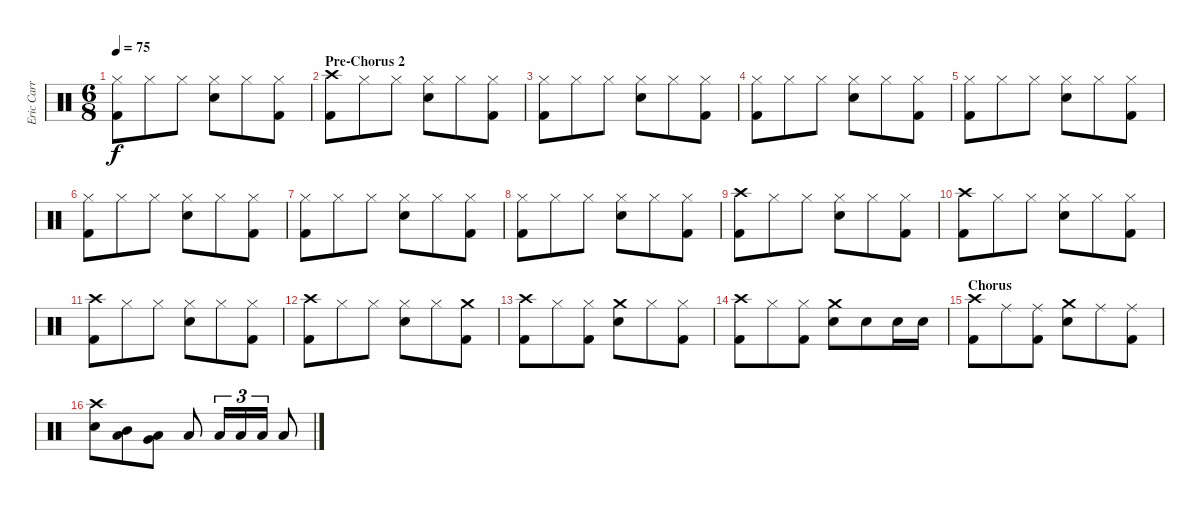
\track ("Eric Carr" "Eric Carr") {instrument percussion}
\staff {score}
\articulation defaults
\ts (6 8)
\tempo 75
\clef neutral
\ks c
("Hi-Hat (closed)" "Kick (hit) 2").8{dy f} "Hi-Hat (closed)".8 "Hi-Hat (closed)".8 ("Hi-Hat (closed)" "Electric Snare (hit)").8 "Hi-Hat (closed)".8 ("Hi-Hat (closed)" "Kick (hit) 2").8 |
\section ("" "Pre-Chorus 2")
("Crash high (hit)" "Kick (hit) 2").8 "Hi-Hat (closed)".8 "Hi-Hat (closed)".8 ("Hi-Hat (closed)" "Electric Snare (hit)").8 "Hi-Hat (closed)".8 ("Hi-Hat (closed)" "Kick (hit) 2").8 |
("Hi-Hat (closed)" "Kick (hit) 2").8 "Hi-Hat (closed)".8 "Hi-Hat (closed)".8 ("Hi-Hat (closed)" "Electric Snare (hit)").8 "Hi-Hat (closed)".8 ("Hi-Hat (closed)" "Kick (hit) 2").8 |
("Hi-Hat (closed)" "Kick (hit) 2").8 "Hi-Hat (closed)".8 "Hi-Hat (closed)".8 ("Hi-Hat (closed)" "Electric Snare (hit)").8 "Hi-Hat (closed)".8 ("Hi-Hat (closed)" "Kick (hit) 2").8 |
("Hi-Hat (closed)" "Kick (hit) 2").8 "Hi-Hat (closed)".8 "Hi-Hat (closed)".8 ("Hi-Hat (closed)" "Electric Snare (hit)").8 "Hi-Hat (closed)".8 ("Hi-Hat (closed)" "Kick (hit) 2").8 |
("Hi-Hat (closed)" "Kick (hit) 2").8 "Hi-Hat (closed)".8 "Hi-Hat (closed)".8 ("Hi-Hat (closed)" "Electric Snare (hit)").8 "Hi-Hat (closed)".8 ("Hi-Hat (closed)" "Kick (hit) 2").8 |
("Hi-Hat (closed)" "Kick (hit) 2").8 "Hi-Hat (closed)".8 "Hi-Hat (closed)".8 ("Hi-Hat (closed)" "Electric Snare (hit)").8 "Hi-Hat (closed)".8 ("Hi-Hat (closed)" "Kick (hit) 2").8 |
("Hi-Hat (closed)" "Kick (hit) 2").8 "Hi-Hat (closed)".8 "Hi-Hat (closed)".8 ("Hi-Hat (closed)" "Electric Snare (hit)").8 "Hi-Hat (closed)".8 ("Hi-Hat (closed)" "Kick (hit) 2").8 |
("Crash high (hit)" "Kick (hit) 2").8 "Hi-Hat (closed)".8 "Hi-Hat (closed)".8 ("Hi-Hat (closed)" "Electric Snare (hit)").8 "Hi-Hat (closed)".8 ("Hi-Hat (closed)" "Kick (hit) 2").8 |
("Crash high (hit)" "Kick (hit) 2").8 "Hi-Hat (closed)".8 "Hi-Hat (closed)".8 ("Hi-Hat (closed)" "Electric Snare (hit)").8 "Hi-Hat (closed)".8 ("Hi-Hat (closed)" "Kick (hit) 2").8 |
("Crash high (hit)" "Kick (hit) 2").8 "Hi-Hat (closed)".8 "Hi-Hat (closed)".8 ("Hi-Hat (closed)" "Electric Snare (hit)").8 "Hi-Hat (closed)".8 ("Hi-Hat (closed)" "Kick (hit) 2").8 |
("Crash high (hit)" "Kick (hit) 2").8 "Hi-Hat (closed)".8 "Hi-Hat (closed)".8 ("Hi-Hat (closed)" "Electric Snare (hit)").8 "Hi-Hat (closed)".8 ("Crash medium (hit)" "Kick (hit) 2").8 |
("Crash high (hit)" "Kick (hit) 2").8 "Hi-Hat (closed)".8 ("Hi-Hat (closed)" "Kick (hit) 2").8 ("Crash medium (hit)" "Electric Snare (hit)").8 "Hi-Hat (closed)".8 ("Hi-Hat (closed)" "Kick (hit) 2").8 |
("Crash high (hit)" "Kick (hit) 2").8 "Hi-Hat (closed)".8 ("Hi-Hat (closed)" "Kick (hit) 2").8 ("Crash medium (hit)" "Electric Snare (hit)").8 "Electric Snare (hit)".8 "Electric Snare (hit)".16 "Electric Snare (hit)".16 |
\section ("" "Chorus")
("Crash high (hit)" "Kick (hit) 2").8 "Ride (middle)".8 ("Ride (middle)" "Kick (hit) 2").8 ("Crash medium (hit)" "Electric Snare (hit)").8 "Ride (middle)".8 ("Ride (middle)" "Kick (hit) 2").8 |
("Crash high (hit)" "Electric Snare (hit)").8 ("Mid Tom (hit)" "Low Tom (hit)").8 ("Low Tom (hit)" "Very Low Tom (hit)").8 "Low Floor Tom (hit)".8 "Low Floor Tom (hit)".16{tu (3 2)} "Low Floor Tom (hit)".16{tu (3 2)} "Low Floor Tom (hit)".16{tu (3 2)} "Low Floor Tom (hit)".8
